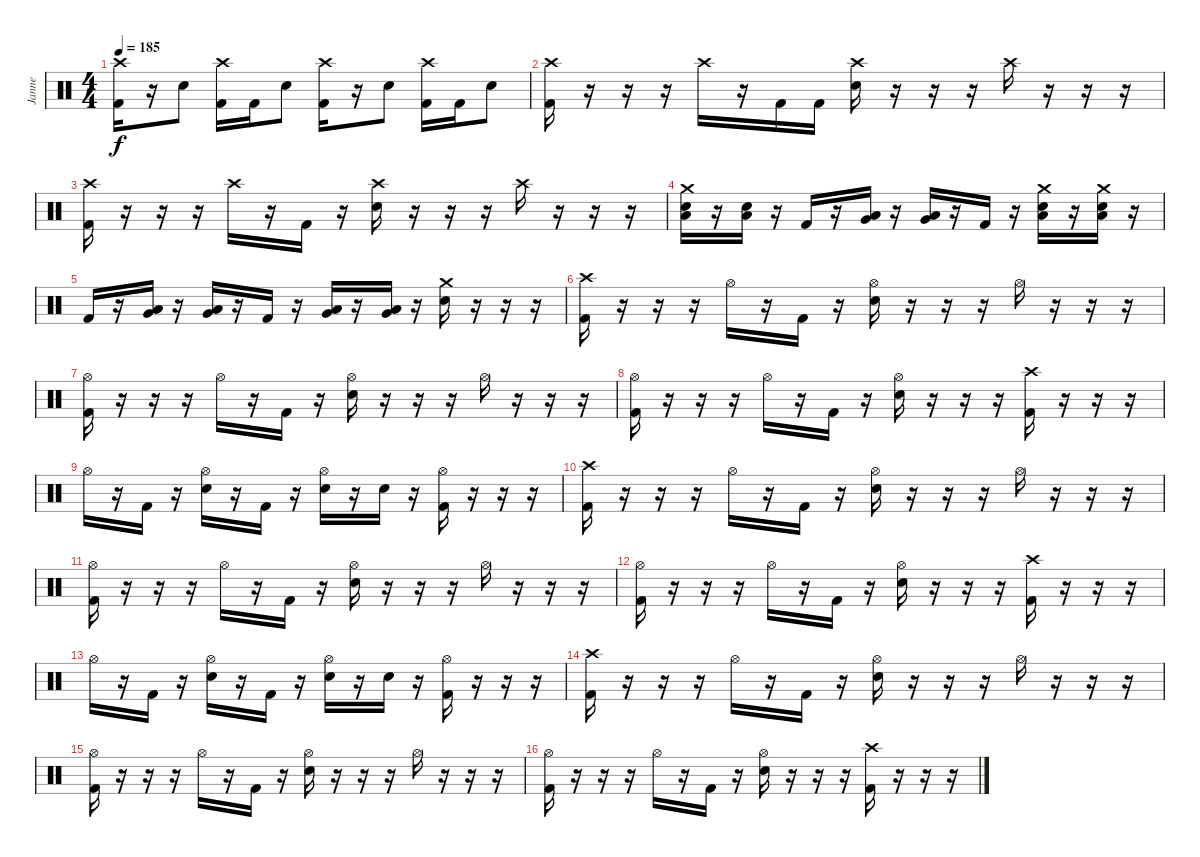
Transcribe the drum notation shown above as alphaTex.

\track ("Janne" "Janne") {instrument percussion}
\staff {score}
\articulation defaults
\ts (4 4)
\tempo 185
\clef neutral
\ks c
("Crash high (hit)" "Kick (hit) 2").16{dy f} r.16 "Electric Snare (hit)".8 ("Crash high (hit)" "Kick (hit) 2").16 "Kick (hit) 2".16 "Electric Snare (hit)".8 ("Crash high (hit)" "Kick (hit) 2").16 r.16 "Electric Snare (hit)".8 ("Crash high (hit)" "Kick (hit) 2").16 "Kick (hit) 2".16 "Electric Snare (hit)".8 |
("Crash high (hit)" "Kick (hit) 2").16 r.16 r.16 r.16 "Crash high (hit)".16 r.16 "Kick (hit) 2".16 "Kick (hit) 2".16 ("Crash high (hit)" "Electric Snare (hit)").16 r.16 r.16 r.16 "Crash high (hit)".16 r.16 r.16 r.16 |
("Crash high (hit)" "Kick (hit) 2").16 r.16 r.16 r.16 "Crash high (hit)".16 r.16 "Kick (hit) 2".16 r.16 ("Crash high (hit)" "Electric Snare (hit)").16 r.16 r.16 r.16 "Crash high (hit)".16 r.16 r.16 r.16 |
("Crash medium (hit)" "Low Tom (hit)" "Electric Snare (hit)").16 r.16 ("Low Tom (hit)" "Electric Snare (hit)").16 r.16 "Kick (hit) 2".16 r.16 ("Low Tom (hit)" "Very Low Tom (hit)").16 r.16 ("Low Tom (hit)" "Very Low Tom (hit)").16 r.16 "Kick (hit) 2".16 r.16 ("Crash medium (hit)" "Low Tom (hit)" "Electric Snare (hit)").16 r.16 ("Crash medium (hit)" "Low Tom (hit)" "Electric Snare (hit)").16 r.16 |
"Kick (hit) 2".16 r.16 ("Low Tom (hit)" "Very Low Tom (hit)").16 r.16 ("Low Tom (hit)" "Very Low Tom (hit)").16 r.16 "Kick (hit) 2".16 r.16 ("Very Low Tom (hit)" "Low Floor Tom (hit)").16 r.16 ("Very Low Tom (hit)" "Low Floor Tom (hit)").16 r.16 ("Crash medium (hit)" "Electric Snare (hit)").16 r.16 r.16 r.16 |
("Crash high (hit)" "Kick (hit) 2").16 r.16 r.16 r.16 "Hi-Hat (open)".16 r.16 "Kick (hit) 2".16 r.16 ("Hi-Hat (open)" "Electric Snare (hit)").16 r.16 r.16 r.16 "Hi-Hat (open)".16 r.16 r.16 r.16 |
("Hi-Hat (open)" "Kick (hit) 2").16 r.16 r.16 r.16 "Hi-Hat (open)".16 r.16 "Kick (hit) 2".16 r.16 ("Hi-Hat (open)" "Electric Snare (hit)").16 r.16 r.16 r.16 "Hi-Hat (open)".16 r.16 r.16 r.16 |
("Hi-Hat (open)" "Kick (hit) 2").16 r.16 r.16 r.16 "Hi-Hat (open)".16 r.16 "Kick (hit) 2".16 r.16 ("Hi-Hat (open)" "Electric Snare (hit)").16 r.16 r.16 r.16 ("Crash high (hit)" "Kick (hit) 2").16 r.16 r.16 r.16 |
"Hi-Hat (open)".16 r.16 "Kick (hit) 2".16 r.16 ("Hi-Hat (open)" "Electric Snare (hit)").16 r.16 "Kick (hit) 2".16 r.16 ("Hi-Hat (open)" "Electric Snare (hit)").16 r.16 "Electric Snare (hit)".16 r.16 ("Hi-Hat (open)" "Kick (hit) 2").16 r.16 r.16 r.16 |
("Crash high (hit)" "Kick (hit) 2").16 r.16 r.16 r.16 "Hi-Hat (open)".16 r.16 "Kick (hit) 2".16 r.16 ("Hi-Hat (open)" "Electric Snare (hit)").16 r.16 r.16 r.16 "Hi-Hat (open)".16 r.16 r.16 r.16 |
("Hi-Hat (open)" "Kick (hit) 2").16 r.16 r.16 r.16 "Hi-Hat (open)".16 r.16 "Kick (hit) 2".16 r.16 ("Hi-Hat (open)" "Electric Snare (hit)").16 r.16 r.16 r.16 "Hi-Hat (open)".16 r.16 r.16 r.16 |
("Hi-Hat (open)" "Kick (hit) 2").16 r.16 r.16 r.16 "Hi-Hat (open)".16 r.16 "Kick (hit) 2".16 r.16 ("Hi-Hat (open)" "Electric Snare (hit)").16 r.16 r.16 r.16 ("Crash high (hit)" "Kick (hit) 2").16 r.16 r.16 r.16 |
"Hi-Hat (open)".16 r.16 "Kick (hit) 2".16 r.16 ("Hi-Hat (open)" "Electric Snare (hit)").16 r.16 "Kick (hit) 2".16 r.16 ("Hi-Hat (open)" "Electric Snare (hit)").16 r.16 "Electric Snare (hit)".16 r.16 ("Hi-Hat (open)" "Kick (hit) 2").16 r.16 r.16 r.16 |
("Crash high (hit)" "Kick (hit) 2").16 r.16 r.16 r.16 "Hi-Hat (open)".16 r.16 "Kick (hit) 2".16 r.16 ("Hi-Hat (open)" "Electric Snare (hit)").16 r.16 r.16 r.16 "Hi-Hat (open)".16 r.16 r.16 r.16 |
("Hi-Hat (open)" "Kick (hit) 2").16 r.16 r.16 r.16 "Hi-Hat (open)".16 r.16 "Kick (hit) 2".16 r.16 ("Hi-Hat (open)" "Electric Snare (hit)").16 r.16 r.16 r.16 "Hi-Hat (open)".16 r.16 r.16 r.16 |
("Hi-Hat (open)" "Kick (hit) 2").16 r.16 r.16 r.16 "Hi-Hat (open)".16 r.16 "Kick (hit) 2".16 r.16 ("Hi-Hat (open)" "Electric Snare (hit)").16 r.16 r.16 r.16 ("Crash high (hit)" "Kick (hit) 2").16 r.16 r.16 r.16
